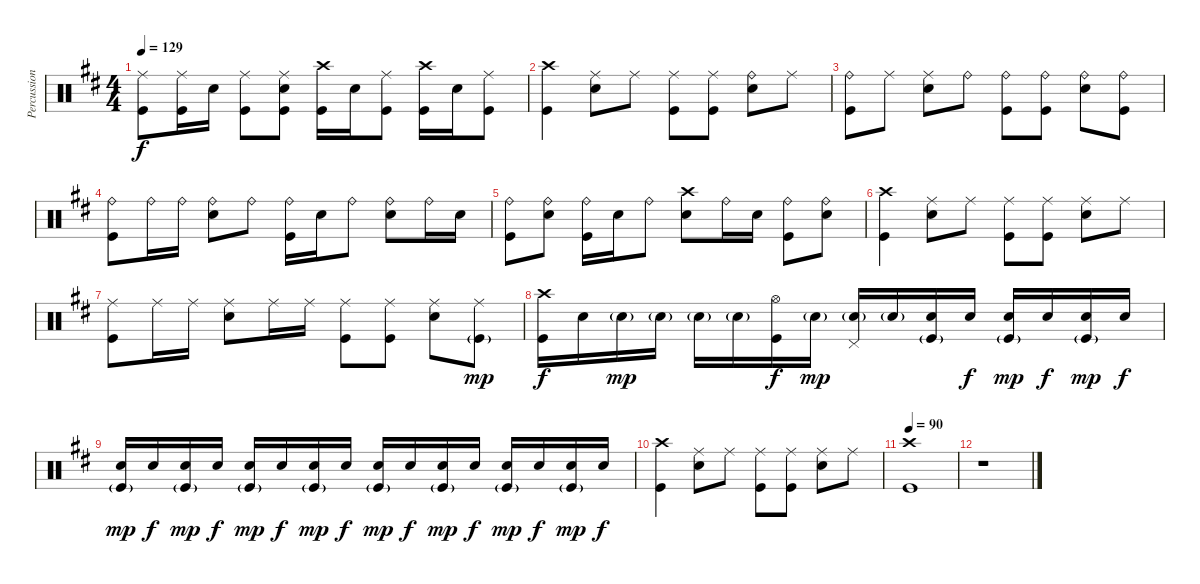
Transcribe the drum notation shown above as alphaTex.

\track ("Percussion" "Percussion") {instrument percussion}
\staff {score}
\articulation defaults
\ts (4 4)
\tempo 129
\clef neutral
\ks bminor
("Ride (middle)" "Kick (hit)").8{dy f} ("Ride (middle)" "Kick (hit)").16 "Snare (hit) 2".16 ("Ride (middle)" "Kick (hit)").8 ("Ride (middle)" "Snare (hit) 2" "Kick (hit)").8 ("Crash high (hit)" "Kick (hit)").16 "Snare (hit) 2".16 ("Ride (middle)" "Kick (hit)").8 ("Crash high (hit)" "Kick (hit)").16 "Snare (hit) 2".16 ("Ride (middle)" "Kick (hit)").8 |
("Crash high (hit)" "Kick (hit)").4 ("Ride (middle)" "Snare (hit) 2").8 "Ride (middle)".8 ("Ride (middle)" "Kick (hit)").8 ("Ride (middle)" "Kick (hit)").8 ("Ride (bell)" "Snare (hit) 2").8 "Ride (middle)".8 |
("Ride (bell)" "Kick (hit)").8 "Ride (middle)".8 ("Ride (middle)" "Snare (hit) 2").8 "Ride (bell)".8 ("Ride (bell)" "Kick (hit)").8 ("Ride (bell)" "Kick (hit)").8 ("Ride (bell)" "Snare (hit) 2").8 ("Ride (bell)" "Kick (hit)").8 |
("Ride (bell)" "Kick (hit)").8 "Ride (bell)".16 "Ride (bell)".16 ("Ride (bell)" "Snare (hit) 2").8 "Ride (bell)".8 ("Ride (bell)" "Kick (hit)").16 "Snare (hit) 2".16 "Ride (bell)".8 ("Ride (bell)" "Snare (hit) 2").8 "Ride (bell)".16 "Snare (hit) 2".16 |
("Ride (bell)" "Kick (hit)").8 ("Ride (bell)" "Snare (hit) 2").8 ("Ride (bell)" "Kick (hit)").16 "Snare (hit) 2".16 "Ride (bell)".8 ("Crash high (hit)" "Snare (hit) 2").8 "Ride (bell)".16 "Snare (hit) 2".16 ("Ride (bell)" "Kick (hit)").8 ("Ride (bell)" "Snare (hit) 2").8 |
("Crash high (hit)" "Kick (hit)").4 ("Ride (middle)" "Snare (hit) 2").8 "Ride (middle)".8 ("Ride (middle)" "Kick (hit)").8 ("Ride (middle)" "Kick (hit)").8 ("Ride (middle)" "Snare (hit) 2").8 "Ride (middle)".8 |
("Ride (middle)" "Kick (hit)").8 "Ride (middle)".16 "Ride (middle)".16 ("Ride (middle)" "Snare (hit) 2").8 "Ride (middle)".16 "Ride (middle)".16 ("Ride (middle)" "Kick (hit)").8 ("Ride (middle)" "Kick (hit)").8 ("Ride (middle)" "Snare (hit) 2").8 ("Ride (middle)" "Kick (hit)"{g}).8{dy mp} |
("Crash high (hit)" "Kick (hit)").16{dy f} "Snare (hit) 2".16 "Snare (hit) 2"{g}.16{dy mp} "Snare (hit) 2"{g}.16 "Snare (hit) 2"{g}.16 "Snare (hit) 2"{g}.16 ("Hi-Hat (open)" "Kick (hit)").16{dy f} "Snare (hit) 2"{g}.16{dy mp} ("Pedal Hi-Hat (hit)" "Snare (hit) 2"{g}).16 "Snare (hit) 2"{g}.16 ("Snare (hit) 2" "Kick (hit)"{g}).16 "Snare (hit) 2".16{dy f} ("Snare (hit) 2" "Kick (hit)"{g}).16{dy mp} "Snare (hit) 2".16{dy f} ("Snare (hit) 2" "Kick (hit)"{g}).16{dy mp} "Snare (hit) 2".16{dy f} |
("Snare (hit) 2" "Kick (hit)"{g}).16{dy mp} "Snare (hit) 2".16{dy f} ("Snare (hit) 2" "Kick (hit)"{g}).16{dy mp} "Snare (hit) 2".16{dy f} ("Snare (hit) 2" "Kick (hit)"{g}).16{dy mp} "Snare (hit) 2".16{dy f} ("Snare (hit) 2" "Kick (hit)"{g}).16{dy mp} "Snare (hit) 2".16{dy f} ("Snare (hit) 2" "Kick (hit)"{g}).16{dy mp} "Snare (hit) 2".16{dy f} ("Snare (hit) 2" "Kick (hit)"{g}).16{dy mp} "Snare (hit) 2".16{dy f} ("Snare (hit) 2" "Kick (hit)"{g}).16{dy mp} "Snare (hit) 2".16{dy f} ("Snare (hit) 2" "Kick (hit)"{g}).16{dy mp} "Snare (hit) 2".16{dy f} |
("Crash high (hit)" "Kick (hit)").4 ("Ride (middle)" "Snare (hit) 2").8 "Ride (middle)".8 ("Ride (middle)" "Kick (hit)").8 ("Ride (middle)" "Kick (hit)").8 ("Ride (middle)" "Snare (hit) 2").8 "Ride (middle)".8 |
\tempo 90
("Crash high (hit)" "Kick (hit)").1 |
r.1
